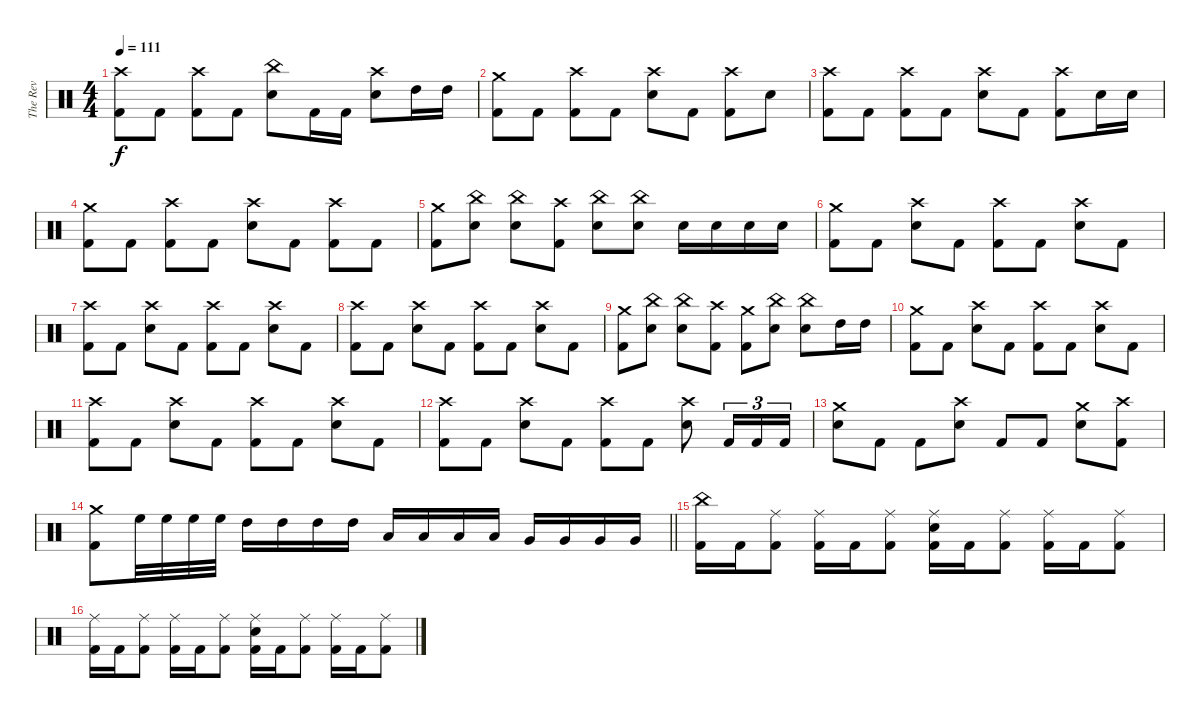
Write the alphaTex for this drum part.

\track ("The Rev" "The Rev") {instrument percussion}
\staff {score}
\articulation defaults
\ts (4 4)
\tempo 111
\clef neutral
\ks c
("Crash high (hit)" "Kick (hit) 2").8{dy f} "Kick (hit) 2".8 ("Crash high (hit)" "Kick (hit) 2").8 "Kick (hit) 2".8 ("China (hit)" "Snare (hit) 2").8 "Kick (hit) 2".16 "Kick (hit) 2".16 ("Crash high (hit)" "Snare (hit) 2").8 "High Tom (hit)".16 "High Tom (hit)".16 |
("Crash medium (hit)" "Kick (hit) 2").8 "Kick (hit) 2".8 ("Crash high (hit)" "Kick (hit) 2").8 "Kick (hit) 2".8 ("Crash high (hit)" "Snare (hit) 2").8 "Kick (hit) 2".8 ("Crash high (hit)" "Kick (hit) 2").8 "Snare (hit) 2".8 |
("Crash high (hit)" "Kick (hit) 2").8 "Kick (hit) 2".8 ("Crash high (hit)" "Kick (hit) 2").8 "Kick (hit) 2".8 ("Crash high (hit)" "Snare (hit) 2").8 "Kick (hit) 2".8 ("Crash high (hit)" "Kick (hit) 2").8 "Snare (hit) 2".16 "Snare (hit) 2".16 |
("Crash medium (hit)" "Kick (hit) 2").8 "Kick (hit) 2".8 ("Crash high (hit)" "Kick (hit) 2").8 "Kick (hit) 2".8 ("Crash high (hit)" "Snare (hit) 2").8 "Kick (hit) 2".8 ("Crash high (hit)" "Kick (hit) 2").8 "Kick (hit) 2".8 |
("Crash medium (hit)" "Kick (hit) 2").8 ("China (hit)" "Snare (hit) 2").8 ("China (hit)" "Snare (hit) 2").8 ("Crash high (hit)" "Kick (hit) 2").8 ("China (hit)" "Snare (hit) 2").8 ("China (hit)" "Snare (hit) 2").8 "Snare (hit) 2".16 "Snare (hit) 2".16 "Snare (hit) 2".16 "Snare (hit) 2".16 |
("Crash medium (hit)" "Kick (hit) 2").8 "Kick (hit) 2".8 ("Crash high (hit)" "Snare (hit) 2").8 "Kick (hit) 2".8 ("Crash high (hit)" "Kick (hit) 2").8 "Kick (hit) 2".8 ("Crash high (hit)" "Snare (hit) 2").8 "Kick (hit) 2".8 |
("Crash high (hit)" "Kick (hit) 2").8 "Kick (hit) 2".8 ("Crash high (hit)" "Snare (hit) 2").8 "Kick (hit) 2".8 ("Crash high (hit)" "Kick (hit) 2").8 "Kick (hit) 2".8 ("Crash high (hit)" "Snare (hit) 2").8 "Kick (hit) 2".8 |
("Crash high (hit)" "Kick (hit) 2").8 "Kick (hit) 2".8 ("Crash high (hit)" "Snare (hit) 2").8 "Kick (hit) 2".8 ("Crash high (hit)" "Kick (hit) 2").8 "Kick (hit) 2".8 ("Crash high (hit)" "Snare (hit) 2").8 "Kick (hit) 2".8 |
("Crash medium (hit)" "Kick (hit) 2").8 ("China (hit)" "Snare (hit) 2").8 ("China (hit)" "Snare (hit) 2").8 ("Crash high (hit)" "Kick (hit) 2").8 ("Crash medium (hit)" "Kick (hit) 2").8 ("China (hit)" "Snare (hit) 2").8 ("China (hit)" "Snare (hit) 2").8 "High Tom (hit)".16 "High Tom (hit)".16 |
("Crash medium (hit)" "Kick (hit) 2").8 "Kick (hit) 2".8 ("Crash high (hit)" "Snare (hit) 2").8 "Kick (hit) 2".8 ("Crash high (hit)" "Kick (hit) 2").8 "Kick (hit) 2".8 ("Crash high (hit)" "Snare (hit) 2").8 "Kick (hit) 2".8 |
("Crash high (hit)" "Kick (hit) 2").8 "Kick (hit) 2".8 ("Crash high (hit)" "Snare (hit) 2").8 "Kick (hit) 2".8 ("Crash high (hit)" "Kick (hit) 2").8 "Kick (hit) 2".8 ("Crash high (hit)" "Snare (hit) 2").8 "Kick (hit) 2".8 |
("Crash high (hit)" "Kick (hit) 2").8 "Kick (hit) 2".8 ("Crash high (hit)" "Snare (hit) 2").8 "Kick (hit) 2".8 ("Crash high (hit)" "Kick (hit) 2").8 "Kick (hit) 2".8 ("Crash high (hit)" "Snare (hit) 2").8 "Kick (hit) 2".16{tu (3 2)} "Kick (hit) 2".16{tu (3 2)} "Kick (hit) 2".16{tu (3 2)} |
("Crash medium (hit)" "Snare (hit) 2").8 "Kick (hit) 2".8 "Kick (hit) 2".8 ("Crash high (hit)" "Snare (hit) 2").8 "Kick (hit) 2".8 "Kick (hit) 2".8 ("Crash medium (hit)" "Snare (hit) 2").8 ("Crash high (hit)" "Kick (hit) 2").8 |
\barLineRight lightlight
("Crash medium (hit)" "Kick (hit) 2").8 "High Floor Tom (hit)".32 "High Floor Tom (hit)".32 "High Floor Tom (hit)".32 "High Floor Tom (hit)".32 "High Tom (hit)".16 "High Tom (hit)".16 "High Tom (hit)".16 "High Tom (hit)".16 "Low Tom (hit)".16 "Low Tom (hit)".16 "Low Tom (hit)".16 "Low Tom (hit)".16 "Very Low Tom (hit)".16 "Very Low Tom (hit)".16 "Very Low Tom (hit)".16 "Very Low Tom (hit)".16 |
("China (hit)" "Kick (hit) 2").16 "Kick (hit) 2".16 ("Ride (middle)" "Kick (hit) 2").8 ("Ride (middle)" "Kick (hit) 2").16 "Kick (hit) 2".16 ("Ride (middle)" "Kick (hit) 2").8 ("Ride (middle)" "Snare (hit) 2" "Kick (hit) 2").16 "Kick (hit) 2".16 ("Ride (middle)" "Kick (hit) 2").8 ("Ride (middle)" "Kick (hit) 2").16 "Kick (hit) 2".16 ("Ride (middle)" "Kick (hit) 2").8 |
("Ride (middle)" "Kick (hit) 2").16 "Kick (hit) 2".16 ("Ride (middle)" "Kick (hit) 2").8 ("Ride (middle)" "Kick (hit) 2").16 "Kick (hit) 2".16 ("Ride (middle)" "Kick (hit) 2").8 ("Ride (middle)" "Snare (hit) 2" "Kick (hit) 2").16 "Kick (hit) 2".16 ("Ride (middle)" "Kick (hit) 2").8 ("Ride (middle)" "Kick (hit) 2").16 "Kick (hit) 2".16 ("Ride (middle)" "Kick (hit) 2").8
